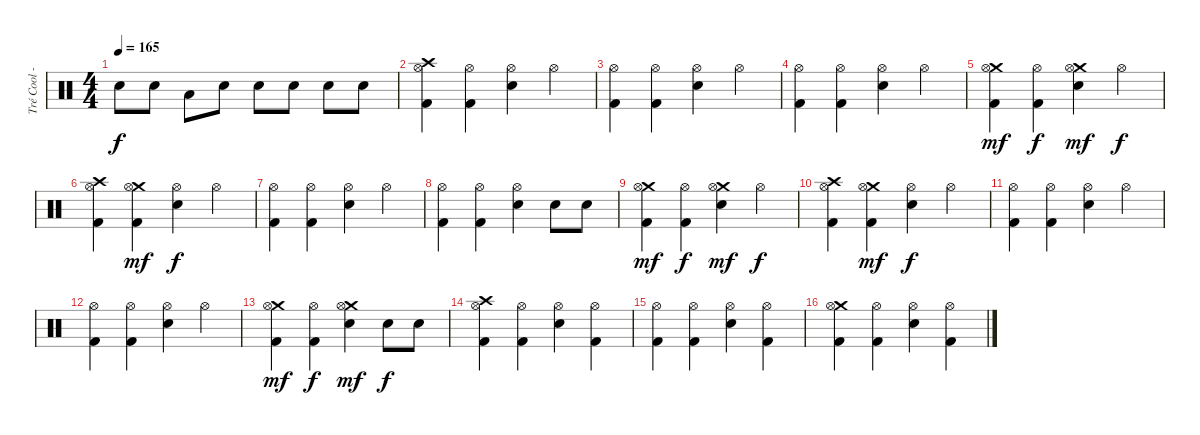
\track ("Tré Cool - Drums" "Tré Cool -") {instrument percussion}
\staff {score}
\articulation defaults
\ts (4 4)
\tempo 165
\clef neutral
\ks c "Electric Snare (hit)".8{dy f} "Electric Snare (hit)".8 "Low Tom (hit)".8 "Electric Snare (hit)".8 "Electric Snare (hit)".8 "Electric Snare (hit)".8 "Electric Snare (hit)".8 "Electric Snare (hit)".8
|
("Crash high (hit)" "Hi-Hat (open)" "Kick (hit) 2").4 ("Hi-Hat (open)" "Kick (hit) 2").4 ("Hi-Hat (open)" "Electric Snare (hit)").4 "Hi-Hat (open)".4 |
("Hi-Hat (open)" "Kick (hit) 2").4 ("Hi-Hat (open)" "Kick (hit) 2").4 ("Hi-Hat (open)" "Electric Snare (hit)").4 "Hi-Hat (open)".4 |
("Hi-Hat (open)" "Kick (hit) 2").4 ("Hi-Hat (open)" "Kick (hit) 2").4 ("Hi-Hat (open)" "Electric Snare (hit)").4 "Hi-Hat (open)".4 |
("Crash medium (hit)" "Hi-Hat (open)" "Kick (hit) 2").4{dy mf} ("Hi-Hat (open)" "Kick (hit) 2").4{dy f} ("Crash medium (hit)" "Hi-Hat (open)" "Electric Snare (hit)").4{dy mf} "Hi-Hat (open)".4{dy f} |
("Crash high (hit)" "Hi-Hat (open)" "Kick (hit) 2").4 ("Crash medium (hit)" "Hi-Hat (open)" "Kick (hit) 2").4{dy mf} ("Hi-Hat (open)" "Electric Snare (hit)").4{dy f} "Hi-Hat (open)".4 |
("Hi-Hat (open)" "Kick (hit) 2").4 ("Hi-Hat (open)" "Kick (hit) 2").4 ("Hi-Hat (open)" "Electric Snare (hit)").4 "Hi-Hat (open)".4 |
("Hi-Hat (open)" "Kick (hit) 2").4 ("Hi-Hat (open)" "Kick (hit) 2").4 ("Hi-Hat (open)" "Electric Snare (hit)").4 "Electric Snare (hit)".8 "Electric Snare (hit)".8 |
("Crash medium (hit)" "Hi-Hat (open)" "Kick (hit) 2").4{dy mf} ("Hi-Hat (open)" "Kick (hit) 2").4{dy f} ("Crash medium (hit)" "Hi-Hat (open)" "Electric Snare (hit)").4{dy mf} "Hi-Hat (open)".4{dy f} |
("Crash high (hit)" "Hi-Hat (open)" "Kick (hit) 2").4 ("Crash medium (hit)" "Hi-Hat (open)" "Kick (hit) 2").4{dy mf} ("Hi-Hat (open)" "Electric Snare (hit)").4{dy f} "Hi-Hat (open)".4 |
("Hi-Hat (open)" "Kick (hit) 2").4 ("Hi-Hat (open)" "Kick (hit) 2").4 ("Hi-Hat (open)" "Electric Snare (hit)").4 "Hi-Hat (open)".4 |
("Hi-Hat (open)" "Kick (hit) 2").4 ("Hi-Hat (open)" "Kick (hit) 2").4 ("Hi-Hat (open)" "Electric Snare (hit)").4 "Hi-Hat (open)".4 |
("Crash medium (hit)" "Hi-Hat (open)" "Kick (hit) 2").4{dy mf} ("Hi-Hat (open)" "Kick (hit) 2").4{dy f} ("Crash medium (hit)" "Hi-Hat (open)" "Electric Snare (hit)").4{dy mf} "Electric Snare (hit)".8{dy f} "Electric Snare (hit)".8 |
("Crash high (hit)" "Hi-Hat (open)" "Kick (hit) 2").4 ("Hi-Hat (open)" "Kick (hit) 2").4 ("Hi-Hat (open)" "Electric Snare (hit)").4 ("Hi-Hat (open)" "Kick (hit) 2").4 |
("Hi-Hat (open)" "Kick (hit) 2").4 ("Hi-Hat (open)" "Kick (hit) 2").4 ("Hi-Hat (open)" "Electric Snare (hit)").4 ("Hi-Hat (open)" "Kick (hit) 2").4 |
("Crash medium (hit)" "Hi-Hat (open)" "Kick (hit) 2").4 ("Hi-Hat (open)" "Kick (hit) 2").4 ("Hi-Hat (open)" "Electric Snare (hit)").4 ("Hi-Hat (open)" "Kick (hit) 2").4
